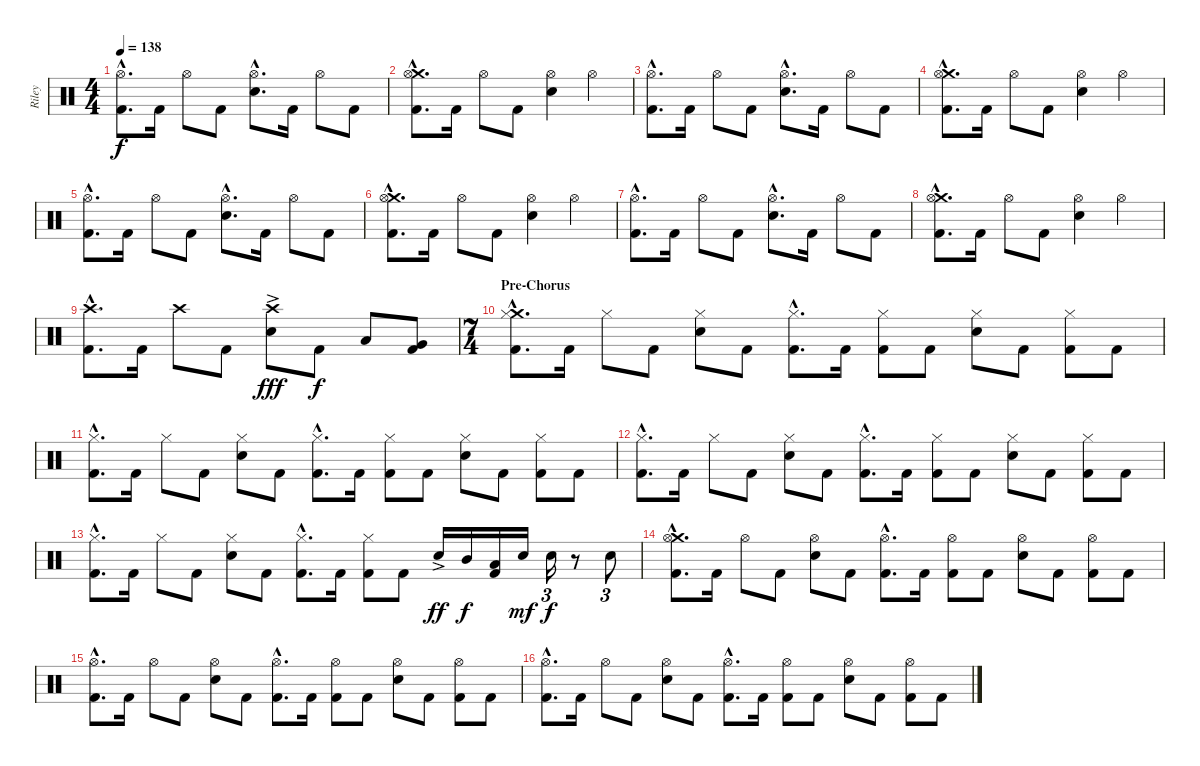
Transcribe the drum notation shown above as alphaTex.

\track ("Riley" "Riley") {instrument percussion}
\staff {score}
\articulation defaults
\ts (4 4)
\tempo 138
\clef neutral
\ks c
("Hi-Hat (open)"{hac} "Kick (hit) 2"{hac}).8{d dy f} "Kick (hit) 2".16 "Hi-Hat (open)".8 "Kick (hit) 2".8 ("Hi-Hat (open)"{hac} "Electric Snare (hit)"{hac}).8{d} "Kick (hit) 2".16 "Hi-Hat (open)".8 "Kick (hit) 2".8 |
("Crash medium (hit)"{hac} "Hi-Hat (open)"{hac} "Kick (hit) 2"{hac}).8{d} "Kick (hit) 2".16 "Hi-Hat (open)".8 "Kick (hit) 2".8 ("Hi-Hat (open)" "Electric Snare (hit)").4 "Hi-Hat (open)".4 |
("Hi-Hat (open)"{hac} "Kick (hit) 2"{hac}).8{d} "Kick (hit) 2".16 "Hi-Hat (open)".8 "Kick (hit) 2".8 ("Hi-Hat (open)"{hac} "Electric Snare (hit)"{hac}).8{d} "Kick (hit) 2".16 "Hi-Hat (open)".8 "Kick (hit) 2".8 |
("Crash medium (hit)"{hac} "Hi-Hat (open)"{hac} "Kick (hit) 2"{hac}).8{d} "Kick (hit) 2".16 "Hi-Hat (open)".8 "Kick (hit) 2".8 ("Hi-Hat (open)" "Electric Snare (hit)").4 "Hi-Hat (open)".4 |
("Hi-Hat (open)"{hac} "Kick (hit) 2"{hac}).8{d} "Kick (hit) 2".16 "Hi-Hat (open)".8 "Kick (hit) 2".8 ("Hi-Hat (open)"{hac} "Electric Snare (hit)"{hac}).8{d} "Kick (hit) 2".16 "Hi-Hat (open)".8 "Kick (hit) 2".8 |
("Crash medium (hit)"{hac} "Hi-Hat (open)"{hac} "Kick (hit) 2"{hac}).8{d} "Kick (hit) 2".16 "Hi-Hat (open)".8 "Kick (hit) 2".8 ("Hi-Hat (open)" "Electric Snare (hit)").4 "Hi-Hat (open)".4 |
("Hi-Hat (open)"{hac} "Kick (hit) 2"{hac}).8{d} "Kick (hit) 2".16 "Hi-Hat (open)".8 "Kick (hit) 2".8 ("Hi-Hat (open)"{hac} "Electric Snare (hit)"{hac}).8{d} "Kick (hit) 2".16 "Hi-Hat (open)".8 "Kick (hit) 2".8 |
("Crash medium (hit)"{hac} "Hi-Hat (open)"{hac} "Kick (hit) 2"{hac}).8{d} "Kick (hit) 2".16 "Hi-Hat (open)".8 "Kick (hit) 2".8 ("Hi-Hat (open)" "Electric Snare (hit)").4 "Hi-Hat (open)".4 |
("Crash high (hit)"{hac} "Kick (hit) 2"{hac}).8{d} "Kick (hit) 2".16 "Crash high (hit)".8 "Kick (hit) 2".8 ("Crash high (hit)" "Electric Snare (hit)"{ac}).8{dy fff} "Kick (hit) 2".8{dy f} "Low Tom (hit)".8 ("Very Low Tom (hit)" "Kick (hit) 2").8 |
\ts (7 4)
\section ("" "Pre-Chorus")
("Crash medium (hit)"{hac} "Hi-Hat (closed)"{hac} "Kick (hit) 2"{hac}).8{d} "Kick (hit) 2".16 "Hi-Hat (closed)".8 "Kick (hit) 2".8 ("Hi-Hat (closed)" "Electric Snare (hit)").8 "Kick (hit) 2".8 ("Hi-Hat (closed)"{hac} "Kick (hit) 2"{hac}).8{d} "Kick (hit) 2".16 ("Hi-Hat (closed)" "Kick (hit) 2").8 "Kick (hit) 2".8 ("Hi-Hat (closed)" "Electric Snare (hit)").8 "Kick (hit) 2".8 ("Hi-Hat (closed)" "Kick (hit) 2").8 "Kick (hit) 2".8 |
("Hi-Hat (closed)"{hac} "Kick (hit) 2"{hac}).8{d} "Kick (hit) 2".16 "Hi-Hat (closed)".8 "Kick (hit) 2".8 ("Hi-Hat (closed)" "Electric Snare (hit)").8 "Kick (hit) 2".8 ("Hi-Hat (closed)"{hac} "Kick (hit) 2"{hac}).8{d} "Kick (hit) 2".16 ("Hi-Hat (closed)" "Kick (hit) 2").8 "Kick (hit) 2".8 ("Hi-Hat (closed)" "Electric Snare (hit)").8 "Kick (hit) 2".8 ("Hi-Hat (closed)" "Kick (hit) 2").8 "Kick (hit) 2".8 |
("Hi-Hat (closed)"{hac} "Kick (hit) 2"{hac}).8{d} "Kick (hit) 2".16 "Hi-Hat (closed)".8 "Kick (hit) 2".8 ("Hi-Hat (closed)" "Electric Snare (hit)").8 "Kick (hit) 2".8 ("Hi-Hat (closed)"{hac} "Kick (hit) 2"{hac}).8{d} "Kick (hit) 2".16 ("Hi-Hat (closed)" "Kick (hit) 2").8 "Kick (hit) 2".8 ("Hi-Hat (closed)" "Electric Snare (hit)").8 "Kick (hit) 2".8 ("Hi-Hat (closed)" "Kick (hit) 2").8 "Kick (hit) 2".8 |
("Hi-Hat (closed)"{hac} "Kick (hit) 2"{hac}).8{d} "Kick (hit) 2".16 "Hi-Hat (closed)".8 "Kick (hit) 2".8 ("Hi-Hat (closed)" "Electric Snare (hit)").8 "Kick (hit) 2".8 ("Hi-Hat (closed)"{hac} "Kick (hit) 2"{hac}).8{d} "Kick (hit) 2".16 ("Hi-Hat (closed)" "Kick (hit) 2").8 "Kick (hit) 2".8 "Electric Snare (hit)"{ac}.16{dy ff} "Mid Tom (hit)".16{dy f} ("Low Tom (hit)" "Kick (hit) 2").16 "Electric Snare (hit)".16{dy mf} "Electric Snare (hit)".16{tu (3 2) dy f} r.8 "Electric Snare (hit)".8{tu (3 2)} |
("Crash medium (hit)"{hac} "Hi-Hat (open)"{hac} "Kick (hit) 2"{hac}).8{d} "Kick (hit) 2".16 "Hi-Hat (open)".8 "Kick (hit) 2".8 ("Hi-Hat (open)" "Electric Snare (hit)").8 "Kick (hit) 2".8 ("Hi-Hat (open)"{hac} "Kick (hit) 2"{hac}).8{d} "Kick (hit) 2".16 ("Hi-Hat (open)" "Kick (hit) 2").8 "Kick (hit) 2".8 ("Hi-Hat (open)" "Electric Snare (hit)").8 "Kick (hit) 2".8 ("Hi-Hat (open)" "Kick (hit) 2").8 "Kick (hit) 2".8 |
("Hi-Hat (open)"{hac} "Kick (hit) 2"{hac}).8{d} "Kick (hit) 2".16 "Hi-Hat (open)".8 "Kick (hit) 2".8 ("Hi-Hat (open)" "Electric Snare (hit)").8 "Kick (hit) 2".8 ("Hi-Hat (open)"{hac} "Kick (hit) 2"{hac}).8{d} "Kick (hit) 2".16 ("Hi-Hat (open)" "Kick (hit) 2").8 "Kick (hit) 2".8 ("Hi-Hat (open)" "Electric Snare (hit)").8 "Kick (hit) 2".8 ("Hi-Hat (open)" "Kick (hit) 2").8 "Kick (hit) 2".8 |
("Hi-Hat (open)"{hac} "Kick (hit) 2"{hac}).8{d} "Kick (hit) 2".16 "Hi-Hat (open)".8 "Kick (hit) 2".8 ("Hi-Hat (open)" "Electric Snare (hit)").8 "Kick (hit) 2".8 ("Hi-Hat (open)"{hac} "Kick (hit) 2"{hac}).8{d} "Kick (hit) 2".16 ("Hi-Hat (open)" "Kick (hit) 2").8 "Kick (hit) 2".8 ("Hi-Hat (open)" "Electric Snare (hit)").8 "Kick (hit) 2".8 ("Hi-Hat (open)" "Kick (hit) 2").8 "Kick (hit) 2".8
